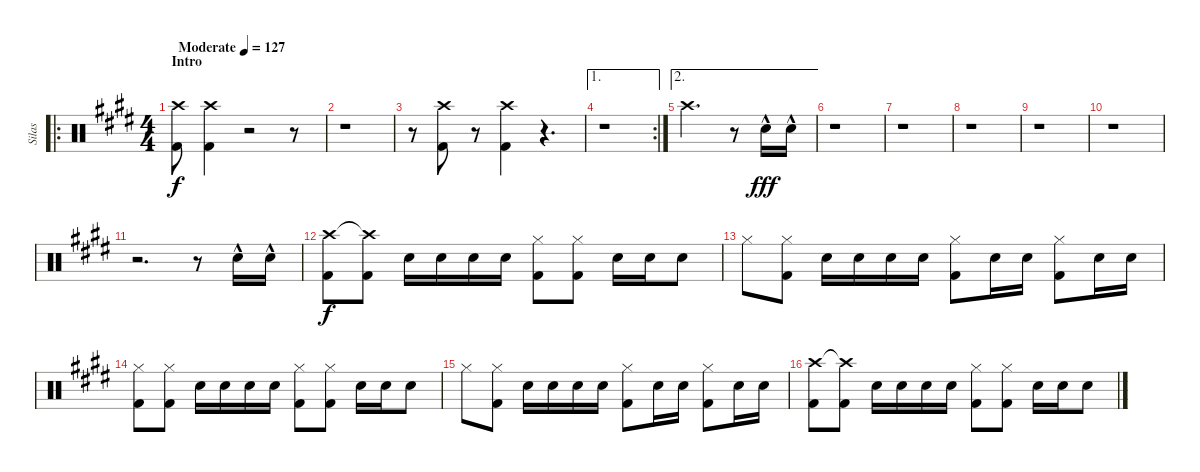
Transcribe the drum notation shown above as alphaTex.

\track ("Silas" "Silas") {instrument percussion}
\staff {score}
\articulation defaults
\ro
\ts (4 4)
\section ("" "Intro")
\tempo (127 "Moderate")
\clef neutral
\ks e
("Crash high (hit)" "Kick (hit) 2").8{dy f} ("Crash high (hit)" "Kick (hit) 2").4 r.2 r.8 |
r.1 |
r.8 ("Crash high (hit)" "Kick (hit) 2").8 r.8 ("Crash high (hit)" "Kick (hit) 2").4 r.4{d} |
\ae 1
\rc 2
r.1 |
\ae 2 "Crash high (hit)".2{d}
r.8 "Snare (hit) 2"{hac}.16{dy fff} "Snare (hit) 2"{hac}.16 |
r.1 |
r.1 |
r.1 |
r.1 |
r.1 |
r.2{d} r.8 "Snare (hit) 2"{hac}.16 "Snare (hit) 2"{hac}.16 |
("Crash high (hit)" "Kick (hit) 2").8{dy f} ("Crash high (hit)"{t} "Kick (hit) 2").8 "Snare (hit) 2".16 "Snare (hit) 2".16 "Snare (hit) 2".16 "Snare (hit) 2".16 ("Hi-Hat (closed)" "Kick (hit) 2").8 ("Hi-Hat (closed)" "Kick (hit) 2").8 "Snare (hit) 2".16 "Snare (hit) 2".16 "Snare (hit) 2".8 |
"Hi-Hat (closed)".8 ("Hi-Hat (closed)" "Kick (hit) 2").8 "Snare (hit) 2".16 "Snare (hit) 2".16 "Snare (hit) 2".16 "Snare (hit) 2".16 ("Hi-Hat (closed)" "Kick (hit) 2").8 "Snare (hit) 2".16 "Snare (hit) 2".16 ("Hi-Hat (closed)" "Kick (hit) 2").8 "Snare (hit) 2".16 "Snare (hit) 2".16 |
("Hi-Hat (closed)" "Kick (hit) 2").8 ("Hi-Hat (closed)" "Kick (hit) 2").8 "Snare (hit) 2".16 "Snare (hit) 2".16 "Snare (hit) 2".16 "Snare (hit) 2".16 ("Hi-Hat (closed)" "Kick (hit) 2").8 ("Hi-Hat (closed)" "Kick (hit) 2").8 "Snare (hit) 2".16 "Snare (hit) 2".16 "Snare (hit) 2".8 |
"Hi-Hat (closed)".8 ("Hi-Hat (closed)" "Kick (hit) 2").8 "Snare (hit) 2".16 "Snare (hit) 2".16 "Snare (hit) 2".16 "Snare (hit) 2".16 ("Hi-Hat (closed)" "Kick (hit) 2").8 "Snare (hit) 2".16 "Snare (hit) 2".16 ("Hi-Hat (closed)" "Kick (hit) 2").8 "Snare (hit) 2".16 "Snare (hit) 2".16 |
("Crash high (hit)" "Kick (hit) 2").8 ("Crash high (hit)"{t} "Kick (hit) 2").8 "Snare (hit) 2".16 "Snare (hit) 2".16 "Snare (hit) 2".16 "Snare (hit) 2".16 ("Hi-Hat (closed)" "Kick (hit) 2").8 ("Hi-Hat (closed)" "Kick (hit) 2").8 "Snare (hit) 2".16 "Snare (hit) 2".16 "Snare (hit) 2".8
